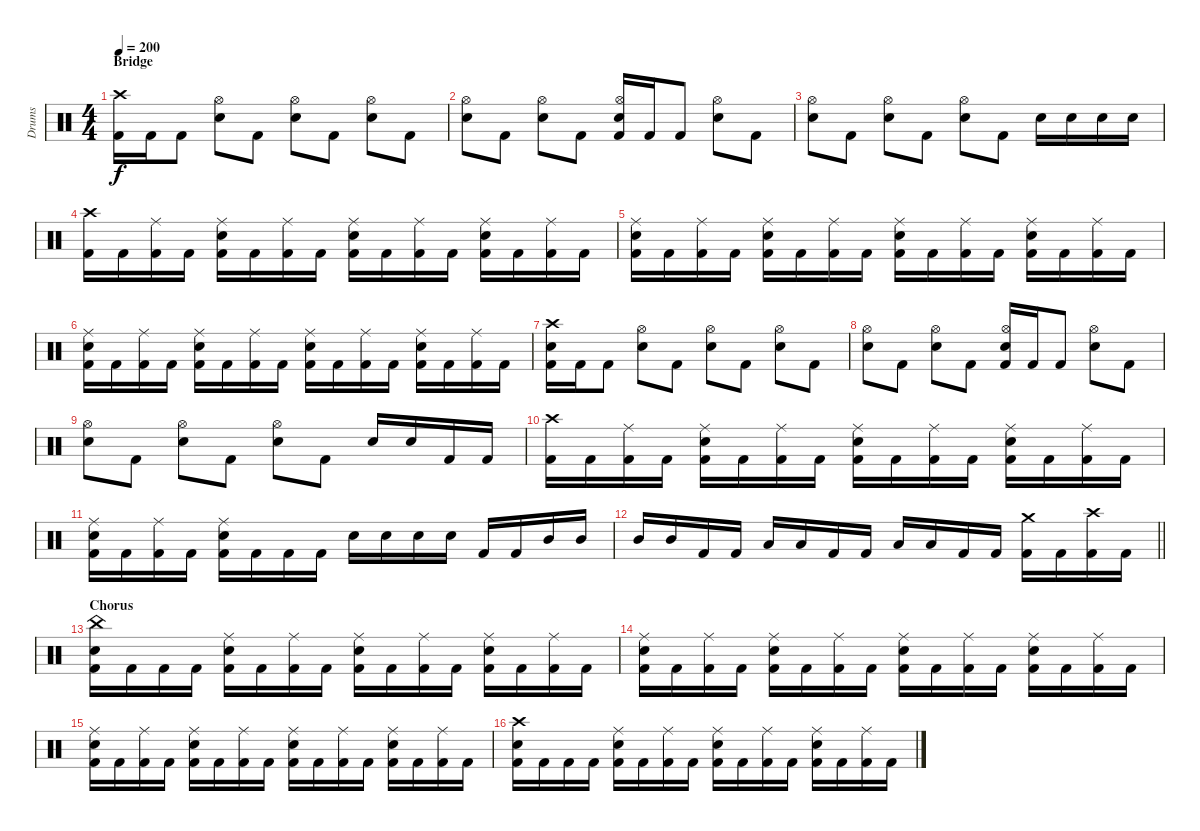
\track ("Drums" "Drums") {instrument percussion}
\staff {score}
\articulation defaults
\ts (4 4)
\section ("" "Bridge")
\tempo 200
\clef neutral
\ks c
("Crash high (hit)" "Kick (hit) 2").16{dy f} "Kick (hit) 2".16 "Kick (hit) 2".8 ("Hi-Hat (open)" "Snare (hit) 2").8 "Kick (hit) 2".8 ("Hi-Hat (open)" "Snare (hit) 2").8 "Kick (hit) 2".8 ("Hi-Hat (open)" "Snare (hit) 2").8 "Kick (hit) 2".8 |
("Hi-Hat (open)" "Snare (hit) 2").8 "Kick (hit) 2".8 ("Hi-Hat (open)" "Snare (hit) 2").8 "Kick (hit) 2".8 ("Hi-Hat (open)" "Snare (hit) 2" "Kick (hit) 2").16 "Kick (hit) 2".16 "Kick (hit) 2".8 ("Hi-Hat (open)" "Snare (hit) 2").8 "Kick (hit) 2".8 |
("Hi-Hat (open)" "Snare (hit) 2").8 "Kick (hit) 2".8 ("Hi-Hat (open)" "Snare (hit) 2").8 "Kick (hit) 2".8 ("Hi-Hat (open)" "Snare (hit) 2").8 "Kick (hit) 2".8 "Snare (hit) 2".16 "Snare (hit) 2".16 "Snare (hit) 2".16 "Snare (hit) 2".16 |
("Crash high (hit)" "Kick (hit) 2").16 "Kick (hit) 2".16 ("Ride (middle)" "Kick (hit) 2").16 "Kick (hit) 2".16 ("Ride (middle)" "Snare (hit) 2" "Kick (hit) 2").16 "Kick (hit) 2".16 ("Ride (middle)" "Kick (hit) 2").16 "Kick (hit) 2".16 ("Ride (middle)" "Snare (hit) 2" "Kick (hit) 2").16 "Kick (hit) 2".16 ("Ride (middle)" "Kick (hit) 2").16 "Kick (hit) 2".16 ("Ride (middle)" "Snare (hit) 2" "Kick (hit) 2").16 "Kick (hit) 2".16 ("Ride (middle)" "Kick (hit) 2").16 "Kick (hit) 2".16 |
("Ride (middle)" "Snare (hit) 2" "Kick (hit) 2").16 "Kick (hit) 2".16 ("Ride (middle)" "Kick (hit) 2").16 "Kick (hit) 2".16 ("Ride (middle)" "Snare (hit) 2" "Kick (hit) 2").16 "Kick (hit) 2".16 ("Ride (middle)" "Kick (hit) 2").16 "Kick (hit) 2".16 ("Ride (middle)" "Snare (hit) 2" "Kick (hit) 2").16 "Kick (hit) 2".16 ("Ride (middle)" "Kick (hit) 2").16 "Kick (hit) 2".16 ("Ride (middle)" "Snare (hit) 2" "Kick (hit) 2").16 "Kick (hit) 2".16 ("Ride (middle)" "Kick (hit) 2").16 "Kick (hit) 2".16 |
("Ride (middle)" "Snare (hit) 2" "Kick (hit) 2").16 "Kick (hit) 2".16 ("Ride (middle)" "Kick (hit) 2").16 "Kick (hit) 2".16 ("Ride (middle)" "Snare (hit) 2" "Kick (hit) 2").16 "Kick (hit) 2".16 ("Ride (middle)" "Kick (hit) 2").16 "Kick (hit) 2".16 ("Ride (middle)" "Snare (hit) 2" "Kick (hit) 2").16 "Kick (hit) 2".16 ("Ride (middle)" "Kick (hit) 2").16 "Kick (hit) 2".16 ("Ride (middle)" "Snare (hit) 2" "Kick (hit) 2").16 "Kick (hit) 2".16 ("Ride (middle)" "Kick (hit) 2").16 "Kick (hit) 2".16 |
("Crash high (hit)" "Snare (hit) 2" "Kick (hit) 2").16 "Kick (hit) 2".16 "Kick (hit) 2".8 ("Hi-Hat (open)" "Snare (hit) 2").8 "Kick (hit) 2".8 ("Hi-Hat (open)" "Snare (hit) 2").8 "Kick (hit) 2".8 ("Hi-Hat (open)" "Snare (hit) 2").8 "Kick (hit) 2".8 |
("Hi-Hat (open)" "Snare (hit) 2").8 "Kick (hit) 2".8 ("Hi-Hat (open)" "Snare (hit) 2").8 "Kick (hit) 2".8 ("Hi-Hat (open)" "Snare (hit) 2" "Kick (hit) 2").16 "Kick (hit) 2".16 "Kick (hit) 2".8 ("Hi-Hat (open)" "Snare (hit) 2").8 "Kick (hit) 2".8 |
("Hi-Hat (open)" "Snare (hit) 2").8 "Kick (hit) 2".8 ("Hi-Hat (open)" "Snare (hit) 2").8 "Kick (hit) 2".8 ("Hi-Hat (open)" "Snare (hit) 2").8 "Kick (hit) 2".8 "Snare (hit) 2".16 "Snare (hit) 2".16 "Kick (hit) 2".16 "Kick (hit) 2".16 |
("Crash high (hit)" "Kick (hit) 2").16 "Kick (hit) 2".16 ("Ride (middle)" "Kick (hit) 2").16 "Kick (hit) 2".16 ("Ride (middle)" "Snare (hit) 2" "Kick (hit) 2").16 "Kick (hit) 2".16 ("Ride (middle)" "Kick (hit) 2").16 "Kick (hit) 2".16 ("Ride (middle)" "Snare (hit) 2" "Kick (hit) 2").16 "Kick (hit) 2".16 ("Ride (middle)" "Kick (hit) 2").16 "Kick (hit) 2".16 ("Ride (middle)" "Snare (hit) 2" "Kick (hit) 2").16 "Kick (hit) 2".16 ("Ride (middle)" "Kick (hit) 2").16 "Kick (hit) 2".16 |
("Ride (middle)" "Snare (hit) 2" "Kick (hit) 2").16 "Kick (hit) 2".16 ("Ride (middle)" "Kick (hit) 2").16 "Kick (hit) 2".16 ("Ride (middle)" "Snare (hit) 2" "Kick (hit) 2").16 "Kick (hit) 2".16 "Kick (hit) 2".16 "Kick (hit) 2".16 "Snare (hit) 2".16 "Snare (hit) 2".16 "Snare (hit) 2".16 "Snare (hit) 2".16 "Kick (hit) 2".16 "Kick (hit) 2".16 "Mid Tom (hit)".16 "Mid Tom (hit)".16 |
\barLineRight lightlight "Mid Tom (hit)".16 "Mid Tom (hit)".16 "Kick (hit) 2".16 "Kick (hit) 2".16 "Low Tom (hit)".16 "Low Tom (hit)".16 "Kick (hit) 2".16 "Kick (hit) 2".16 "Low Tom (hit)".16 "Low Tom (hit)".16 "Kick (hit) 2".16 "Kick (hit) 2".16
("Crash medium (hit)" "Kick (hit) 2").16 "Kick (hit) 2".16 ("Crash high (hit)" "Kick (hit) 2").16 "Kick (hit) 2".16 |
\section ("" "Chorus")
("China (hit)" "Snare (hit) 2" "Kick (hit) 2").16 "Kick (hit) 2".16 "Kick (hit) 2".16 "Kick (hit) 2".16 ("Ride (middle)" "Snare (hit) 2" "Kick (hit) 2").16 "Kick (hit) 2".16 ("Ride (middle)" "Kick (hit) 2").16 "Kick (hit) 2".16 ("Ride (middle)" "Snare (hit) 2" "Kick (hit) 2").16 "Kick (hit) 2".16 ("Ride (middle)" "Kick (hit) 2").16 "Kick (hit) 2".16 ("Ride (middle)" "Snare (hit) 2" "Kick (hit) 2").16 "Kick (hit) 2".16 ("Ride (middle)" "Kick (hit) 2").16 "Kick (hit) 2".16 |
("Ride (middle)" "Snare (hit) 2" "Kick (hit) 2").16 "Kick (hit) 2".16 ("Ride (middle)" "Kick (hit) 2").16 "Kick (hit) 2".16 ("Ride (middle)" "Snare (hit) 2" "Kick (hit) 2").16 "Kick (hit) 2".16 ("Ride (middle)" "Kick (hit) 2").16 "Kick (hit) 2".16 ("Ride (middle)" "Snare (hit) 2" "Kick (hit) 2").16 "Kick (hit) 2".16 ("Ride (middle)" "Kick (hit) 2").16 "Kick (hit) 2".16 ("Ride (middle)" "Snare (hit) 2" "Kick (hit) 2").16 "Kick (hit) 2".16 ("Ride (middle)" "Kick (hit) 2").16 "Kick (hit) 2".16 |
("Ride (middle)" "Snare (hit) 2" "Kick (hit) 2").16 "Kick (hit) 2".16 ("Ride (middle)" "Kick (hit) 2").16 "Kick (hit) 2".16 ("Ride (middle)" "Snare (hit) 2" "Kick (hit) 2").16 "Kick (hit) 2".16 ("Ride (middle)" "Kick (hit) 2").16 "Kick (hit) 2".16 ("Ride (middle)" "Snare (hit) 2" "Kick (hit) 2").16 "Kick (hit) 2".16 ("Ride (middle)" "Kick (hit) 2").16 "Kick (hit) 2".16 ("Ride (middle)" "Snare (hit) 2" "Kick (hit) 2").16 "Kick (hit) 2".16 ("Ride (middle)" "Kick (hit) 2").16 "Kick (hit) 2".16 |
("Crash high (hit)" "Snare (hit) 2" "Kick (hit) 2").16 "Kick (hit) 2".16 "Kick (hit) 2".16 "Kick (hit) 2".16 ("Ride (middle)" "Snare (hit) 2" "Kick (hit) 2").16 "Kick (hit) 2".16 ("Ride (middle)" "Kick (hit) 2").16 "Kick (hit) 2".16 ("Ride (middle)" "Snare (hit) 2" "Kick (hit) 2").16 "Kick (hit) 2".16 ("Ride (middle)" "Kick (hit) 2").16 "Kick (hit) 2".16 ("Ride (middle)" "Snare (hit) 2" "Kick (hit) 2").16 "Kick (hit) 2".16 ("Ride (middle)" "Kick (hit) 2").16 "Kick (hit) 2".16
